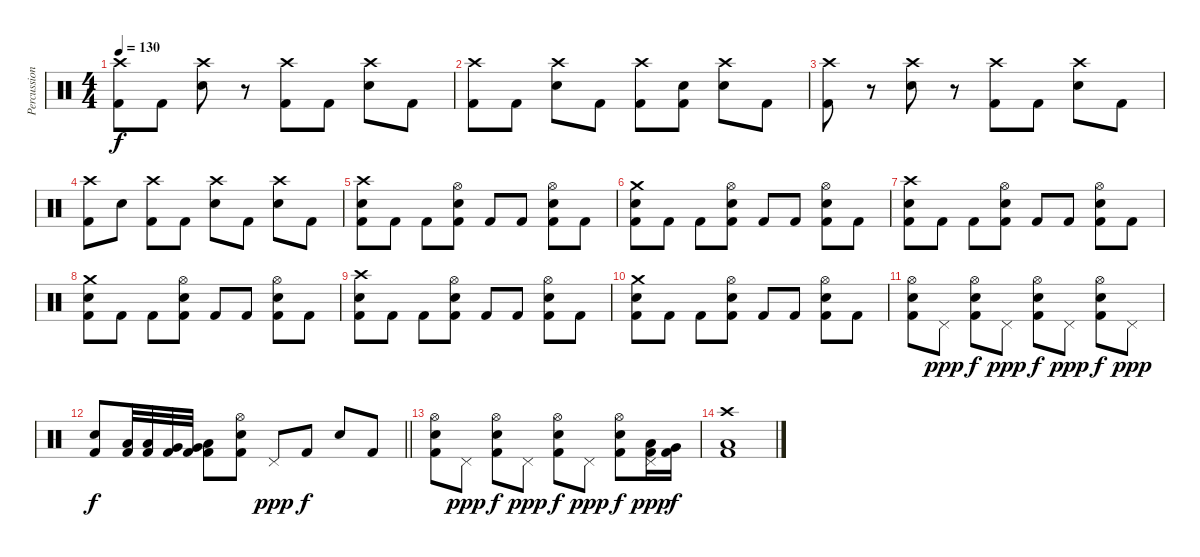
\track ("Percussion" "Percussion") {instrument percussion}
\staff {score}
\articulation defaults
\ts (4 4)
\tempo 130
\clef neutral
\ks c
("Crash high (hit)" "Kick (hit) 2").8{dy f} "Kick (hit) 2".8 ("Crash high (hit)" "Snare (hit) 2").8 r.8 ("Crash high (hit)" "Kick (hit) 2").8 "Kick (hit) 2".8 ("Crash high (hit)" "Snare (hit) 2").8 "Kick (hit) 2".8 |
("Crash high (hit)" "Kick (hit) 2").8 "Kick (hit) 2".8 ("Crash high (hit)" "Snare (hit) 2").8 "Kick (hit) 2".8 ("Crash high (hit)" "Kick (hit) 2").8 ("Snare (hit) 2" "Kick (hit) 2").8 ("Crash high (hit)" "Snare (hit) 2").8 "Kick (hit) 2".8 |
("Crash high (hit)" "Kick (hit) 2").8 r.8 ("Crash high (hit)" "Snare (hit) 2").8 r.8 ("Crash high (hit)" "Kick (hit) 2").8 "Kick (hit) 2".8 ("Crash high (hit)" "Snare (hit) 2").8 "Kick (hit) 2".8 |
("Crash high (hit)" "Kick (hit) 2").8 "Snare (hit) 2".8 ("Crash high (hit)" "Kick (hit) 2").8 "Kick (hit) 2".8 ("Crash high (hit)" "Snare (hit) 2").8 "Kick (hit) 2".8 ("Crash high (hit)" "Snare (hit) 2").8 "Kick (hit) 2".8 |
("Crash high (hit)" "Snare (hit) 2" "Kick (hit) 2").8 "Kick (hit) 2".8 "Kick (hit) 2".8 ("Hi-Hat (open)" "Snare (hit) 2" "Kick (hit) 2").8 "Kick (hit) 2".8 "Kick (hit) 2".8 ("Hi-Hat (open)" "Snare (hit) 2" "Kick (hit) 2").8 "Kick (hit) 2".8 |
("Crash medium (hit)" "Snare (hit) 2" "Kick (hit) 2").8 "Kick (hit) 2".8 "Kick (hit) 2".8 ("Hi-Hat (open)" "Snare (hit) 2" "Kick (hit) 2").8 "Kick (hit) 2".8 "Kick (hit) 2".8 ("Hi-Hat (open)" "Snare (hit) 2" "Kick (hit) 2").8 "Kick (hit) 2".8 |
("Crash high (hit)" "Snare (hit) 2" "Kick (hit) 2").8 "Kick (hit) 2".8 "Kick (hit) 2".8 ("Hi-Hat (open)" "Snare (hit) 2" "Kick (hit) 2").8 "Kick (hit) 2".8 "Kick (hit) 2".8 ("Hi-Hat (open)" "Snare (hit) 2" "Kick (hit) 2").8 "Kick (hit) 2".8 |
("Crash medium (hit)" "Snare (hit) 2" "Kick (hit) 2").8 "Kick (hit) 2".8 "Kick (hit) 2".8 ("Hi-Hat (open)" "Snare (hit) 2" "Kick (hit) 2").8 "Kick (hit) 2".8 "Kick (hit) 2".8 ("Hi-Hat (open)" "Snare (hit) 2" "Kick (hit) 2").8 "Kick (hit) 2".8 |
("Crash high (hit)" "Snare (hit) 2" "Kick (hit) 2").8 "Kick (hit) 2".8 "Kick (hit) 2".8 ("Hi-Hat (open)" "Snare (hit) 2" "Kick (hit) 2").8 "Kick (hit) 2".8 "Kick (hit) 2".8 ("Hi-Hat (open)" "Snare (hit) 2" "Kick (hit) 2").8 "Kick (hit) 2".8 |
("Crash medium (hit)" "Snare (hit) 2" "Kick (hit) 2").8 "Kick (hit) 2".8 "Kick (hit) 2".8 ("Hi-Hat (open)" "Snare (hit) 2" "Kick (hit) 2").8 "Kick (hit) 2".8 "Kick (hit) 2".8 ("Hi-Hat (open)" "Snare (hit) 2" "Kick (hit) 2").8 "Kick (hit) 2".8 |
("Hi-Hat (open)" "Snare (hit) 2" "Kick (hit) 2").8 "Pedal Hi-Hat (hit)".8{dy ppp} ("Hi-Hat (open)" "Snare (hit) 2" "Kick (hit) 2").8{dy f} "Pedal Hi-Hat (hit)".8{dy ppp} ("Hi-Hat (open)" "Snare (hit) 2" "Kick (hit) 2").8{dy f} "Pedal Hi-Hat (hit)".8{dy ppp} ("Hi-Hat (open)" "Snare (hit) 2" "Kick (hit) 2").8{dy f} "Pedal Hi-Hat (hit)".8{dy ppp} |
\barLineRight lightlight
("Snare (hit) 2" "Kick (hit) 2").8{dy f} ("Low Tom (hit)" "Kick (hit) 2").32 ("Low Tom (hit)" "Kick (hit) 2").32 ("Very Low Tom (hit)" "Kick (hit) 2").32 ("Very Low Tom (hit)" "Kick (hit) 2").32 ("Low Floor Tom (hit)" "Kick (hit) 2").8 ("Hi-Hat (open)" "Snare (hit) 2" "Kick (hit) 2").8 "Pedal Hi-Hat (hit)".8{dy ppp} "Kick (hit) 2".8{dy f} "Snare (hit) 2".8 "Kick (hit) 2".8 |
("Hi-Hat (open)" "Snare (hit) 2" "Kick (hit) 2").8 "Pedal Hi-Hat (hit)".8{dy ppp} ("Hi-Hat (open)" "Snare (hit) 2" "Kick (hit) 2").8{dy f} "Pedal Hi-Hat (hit)".8{dy ppp} ("Hi-Hat (open)" "Snare (hit) 2" "Kick (hit) 2").8{dy f} "Pedal Hi-Hat (hit)".8{dy ppp} ("Hi-Hat (open)" "Snare (hit) 2" "Kick (hit) 2").8{dy f} ("Pedal Hi-Hat (hit)" "Low Tom (hit)" "Kick (hit) 2").16{dy ppp} ("Very Low Tom (hit)" "Kick (hit) 2").16{dy f} |
("Crash high (hit)" "Low Floor Tom (hit)" "Kick (hit) 2").1
